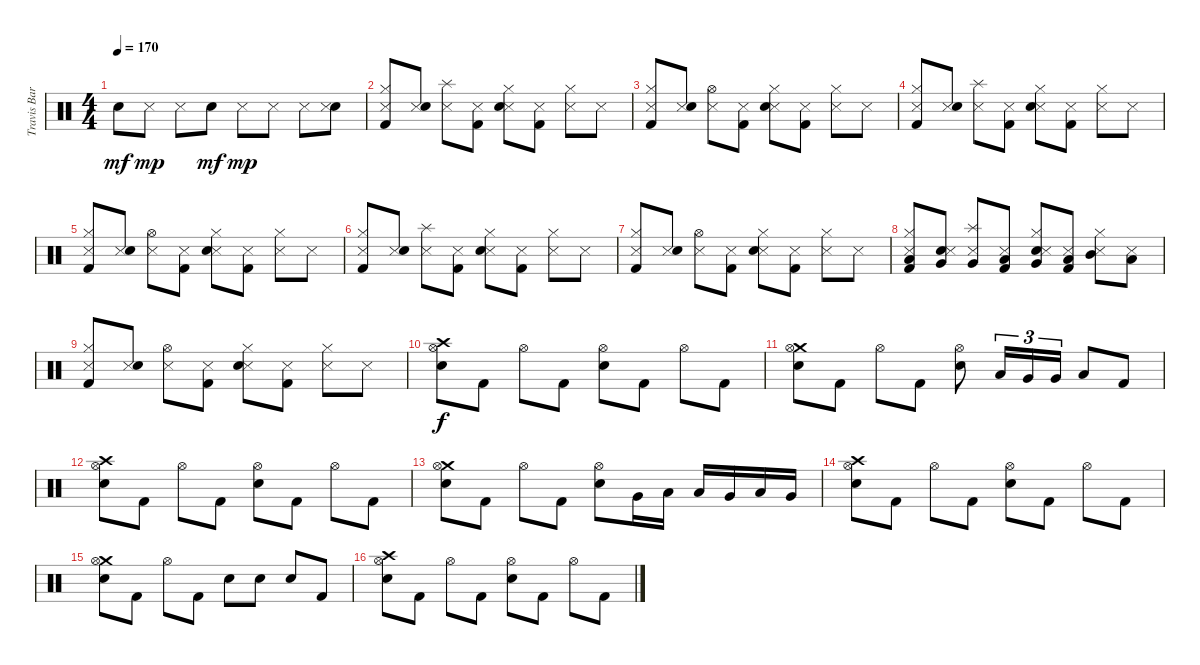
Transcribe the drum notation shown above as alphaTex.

\track ("Travis Barker" "Travis Bar") {instrument percussion}
\staff {score}
\articulation defaults
\ts (4 4)
\tempo 170
\clef neutral
\ks c "Electric Snare (hit)".8{dy mf} "Snare (side stick) 3".8{dy mp} "Snare (side stick) 3".8 "Electric Snare (hit)".8{dy mf} "Snare (side stick) 3".8{dy mp} "Snare (side stick) 3".8 "Snare (side stick) 3".8
("Electric Snare (hit)" "Snare (side stick) 3").8 |
("Snare (side stick) 3" "Hi-Hat (closed)" "Kick (hit) 2").8 ("Snare (side stick) 3" "Electric Snare (hit)").8 ("Snare (side stick) 3" "Splash (hit)").8 ("Snare (side stick) 3" "Kick (hit) 2").8 ("Snare (side stick) 3" "Hi-Hat (closed)" "Electric Snare (hit)").8 ("Snare (side stick) 3" "Kick (hit) 2").8 ("Snare (side stick) 3" "Hi-Hat (closed)").8 "Snare (side stick) 3".8 |
("Snare (side stick) 3" "Hi-Hat (closed)" "Kick (hit) 2").8 ("Snare (side stick) 3" "Electric Snare (hit)").8 ("Snare (side stick) 3" "Hi-Hat (open)").8 ("Snare (side stick) 3" "Kick (hit) 2").8 ("Snare (side stick) 3" "Hi-Hat (closed)" "Electric Snare (hit)").8 ("Snare (side stick) 3" "Kick (hit) 2").8 ("Snare (side stick) 3" "Hi-Hat (closed)").8 "Snare (side stick) 3".8 |
("Snare (side stick) 3" "Hi-Hat (closed)" "Kick (hit) 2").8 ("Snare (side stick) 3" "Electric Snare (hit)").8 ("Snare (side stick) 3" "Splash (hit)").8 ("Snare (side stick) 3" "Kick (hit) 2").8 ("Snare (side stick) 3" "Hi-Hat (closed)" "Electric Snare (hit)").8 ("Snare (side stick) 3" "Kick (hit) 2").8 ("Snare (side stick) 3" "Hi-Hat (closed)").8 "Snare (side stick) 3".8 |
("Snare (side stick) 3" "Hi-Hat (closed)" "Kick (hit) 2").8 ("Snare (side stick) 3" "Electric Snare (hit)").8 ("Snare (side stick) 3" "Hi-Hat (open)").8 ("Snare (side stick) 3" "Kick (hit) 2").8 ("Snare (side stick) 3" "Hi-Hat (closed)" "Electric Snare (hit)").8 ("Snare (side stick) 3" "Kick (hit) 2").8 ("Snare (side stick) 3" "Hi-Hat (closed)").8 "Snare (side stick) 3".8 |
("Snare (side stick) 3" "Hi-Hat (closed)" "Kick (hit) 2").8 ("Snare (side stick) 3" "Electric Snare (hit)").8 ("Snare (side stick) 3" "Splash (hit)").8 ("Snare (side stick) 3" "Kick (hit) 2").8 ("Snare (side stick) 3" "Hi-Hat (closed)" "Electric Snare (hit)").8 ("Snare (side stick) 3" "Kick (hit) 2").8 ("Snare (side stick) 3" "Hi-Hat (closed)").8 "Snare (side stick) 3".8 |
("Snare (side stick) 3" "Hi-Hat (closed)" "Kick (hit) 2").8 ("Snare (side stick) 3" "Electric Snare (hit)").8 ("Snare (side stick) 3" "Hi-Hat (open)").8 ("Snare (side stick) 3" "Kick (hit) 2").8 ("Snare (side stick) 3" "Hi-Hat (closed)" "Electric Snare (hit)").8 ("Snare (side stick) 3" "Kick (hit) 2").8 ("Snare (side stick) 3" "Hi-Hat (closed)").8 "Snare (side stick) 3".8 |
("Hi-Hat (closed)" "Low Floor Tom (hit)" "Kick (hit) 2" "Snare (side stick) 3").8 ("Very Low Tom (hit)" "Electric Snare (hit)" "Snare (side stick) 3").8 ("Splash (hit)" "Very Low Tom (hit)" "Snare (side stick) 3").8 ("Low Floor Tom (hit)" "Kick (hit) 2" "Snare (side stick) 3").8 ("Hi-Hat (closed)" "Very Low Tom (hit)" "Electric Snare (hit)" "Snare (side stick) 3").8 ("Low Tom (hit)" "Kick (hit) 2" "Snare (side stick) 3").8 ("Hi-Hat (closed)" "Mid Tom (hit)" "Snare (side stick) 3").8 ("Low Tom (hit)" "Snare (side stick) 3").8 |
("Snare (side stick) 3" "Hi-Hat (closed)" "Kick (hit) 2").8 ("Snare (side stick) 3" "Electric Snare (hit)").8 ("Snare (side stick) 3" "Hi-Hat (open)").8 ("Snare (side stick) 3" "Kick (hit) 2").8 ("Snare (side stick) 3" "Hi-Hat (closed)" "Electric Snare (hit)").8 ("Snare (side stick) 3" "Kick (hit) 2").8 ("Snare (side stick) 3" "Hi-Hat (closed)").8 "Snare (side stick) 3".8 |
("Crash high (hit)" "Hi-Hat (open)" "Snare (hit) 2").8{dy f} "Kick (hit) 2".8 "Hi-Hat (open)".8 "Kick (hit) 2".8 ("Hi-Hat (open)" "Snare (hit) 2").8 "Kick (hit) 2".8 "Hi-Hat (open)".8 "Kick (hit) 2".8 |
("Crash medium (hit)" "Hi-Hat (open)" "Snare (hit) 2").8 "Kick (hit) 2".8 "Hi-Hat (open)".8 "Kick (hit) 2".8 ("Hi-Hat (open)" "Snare (hit) 2").8 "Low Tom (hit)".16{tu (3 2)} "Very Low Tom (hit)".16{tu (3 2)} "Very Low Tom (hit)".16{tu (3 2)} "Low Tom (hit)".8 "Kick (hit) 2".8 |
("Crash high (hit)" "Hi-Hat (open)" "Snare (hit) 2").8 "Kick (hit) 2".8 "Hi-Hat (open)".8 "Kick (hit) 2".8 ("Hi-Hat (open)" "Snare (hit) 2").8 "Kick (hit) 2".8 "Hi-Hat (open)".8 "Kick (hit) 2".8 |
("Crash medium (hit)" "Hi-Hat (open)" "Snare (hit) 2").8 "Kick (hit) 2".8 "Hi-Hat (open)".8 "Kick (hit) 2".8 ("Hi-Hat (open)" "Snare (hit) 2").8 "Very Low Tom (hit)".16 "Low Tom (hit)".16 "Low Floor Tom (hit)".16 "Very Low Tom (hit)".16 "Low Tom (hit)".16 "Very Low Tom (hit)".16 |
("Crash high (hit)" "Hi-Hat (open)" "Snare (hit) 2").8 "Kick (hit) 2".8 "Hi-Hat (open)".8 "Kick (hit) 2".8 ("Hi-Hat (open)" "Snare (hit) 2").8 "Kick (hit) 2".8 "Hi-Hat (open)".8 "Kick (hit) 2".8 |
("Crash medium (hit)" "Hi-Hat (open)" "Snare (hit) 2").8 "Kick (hit) 2".8 "Hi-Hat (open)".8 "Kick (hit) 2".8 "Snare (hit) 2".8 "Snare (hit) 2".8 "Snare (hit) 2".8 "Kick (hit) 2".8 |
("Crash high (hit)" "Hi-Hat (open)" "Snare (hit) 2").8 "Kick (hit) 2".8 "Hi-Hat (open)".8 "Kick (hit) 2".8 ("Hi-Hat (open)" "Snare (hit) 2").8 "Kick (hit) 2".8 "Hi-Hat (open)".8 "Kick (hit) 2".8
